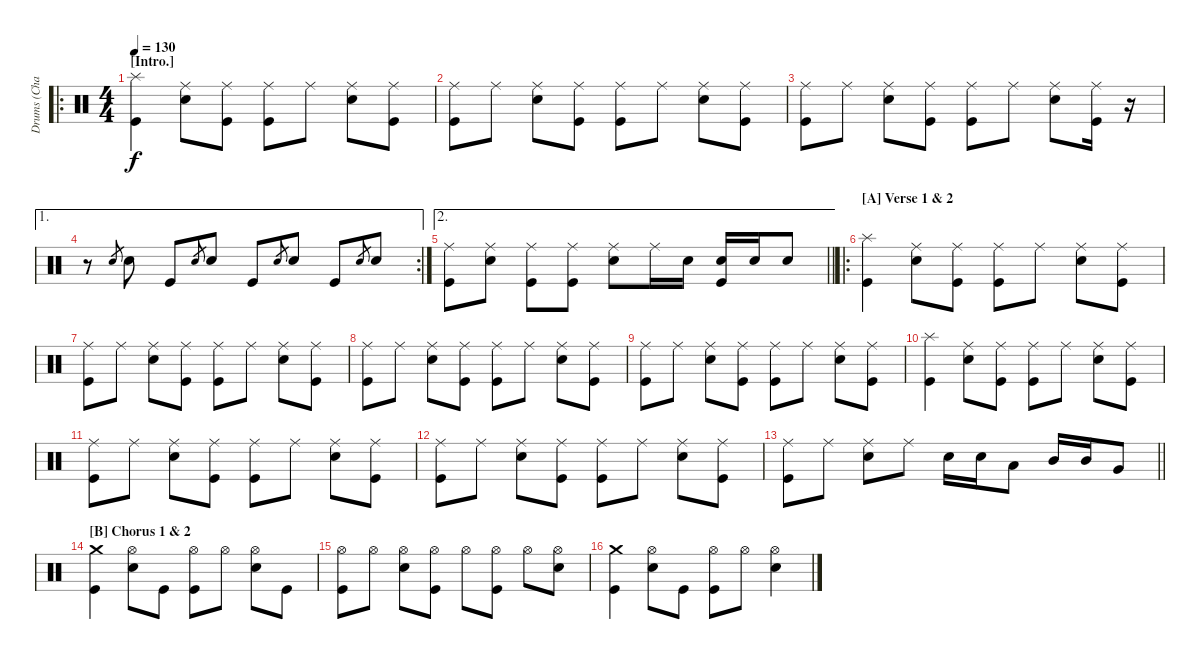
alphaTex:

\track ("Drums (Chad Channing)" "Drums (Cha") {instrument percussion}
\staff {score}
\articulation defaults
\ro
\ts (4 4)
\section ("" "[Intro.]")
\tempo 130
\clef neutral
\ks c
("Splash (hit)" "Kick (hit)").4{dy f} ("Ride (middle)" "Snare (hit) 2").8 ("Ride (middle)" "Kick (hit)").8 ("Ride (middle)" "Kick (hit)").8 "Ride (middle)".8 ("Ride (middle)" "Snare (hit) 2").8 ("Ride (middle)" "Kick (hit)").8 |
("Ride (middle)" "Kick (hit)").8 "Ride (middle)".8 ("Ride (middle)" "Snare (hit) 2").8 ("Ride (middle)" "Kick (hit)").8 ("Ride (middle)" "Kick (hit)").8 "Ride (middle)".8 ("Ride (middle)" "Snare (hit) 2").8 ("Ride (middle)" "Kick (hit)").8 |
("Ride (middle)" "Kick (hit)").8 "Ride (middle)".8 ("Ride (middle)" "Snare (hit) 2").8 ("Ride (middle)" "Kick (hit)").8 ("Ride (middle)" "Kick (hit)").8 "Ride (middle)".8 ("Ride (middle)" "Snare (hit) 2").8 ("Ride (middle)" "Kick (hit)").16 r.16{volume 14} |
\ae 1
\rc 2
r.8 "Snare (hit) 2".8{gr} "Snare (hit) 2".8 "Kick (hit)".8 "Snare (hit) 2".8{gr} "Snare (hit) 2".8 "Kick (hit)".8 "Snare (hit) 2".8{gr} "Snare (hit) 2".8 "Kick (hit)".8 "Snare (hit) 2".8{gr} "Snare (hit) 2".8 |
\ae 2
\barLineRight lightlight
("Ride (middle)" "Kick (hit)").8 ("Ride (middle)" "Snare (hit) 2").8 ("Ride (middle)" "Kick (hit)").8 ("Ride (middle)" "Kick (hit)").8 ("Ride (middle)" "Snare (hit) 2").8 "Ride (middle)".16 "Snare (hit) 2".16 ("Snare (hit) 2" "Kick (hit)").16 "Snare (hit) 2".16 "Snare (hit) 2".8 |
\ro
\section ("" "[A] Verse 1 & 2")
("Splash (hit)" "Kick (hit)").4 ("Ride (middle)" "Snare (hit) 2").8 ("Ride (middle)" "Kick (hit)").8 ("Ride (middle)" "Kick (hit)").8 "Ride (middle)".8 ("Ride (middle)" "Snare (hit) 2").8 ("Ride (middle)" "Kick (hit)").8 |
("Ride (middle)" "Kick (hit)").8 "Ride (middle)".8 ("Ride (middle)" "Snare (hit) 2").8 ("Ride (middle)" "Kick (hit)").8 ("Ride (middle)" "Kick (hit)").8 "Ride (middle)".8 ("Ride (middle)" "Snare (hit) 2").8 ("Ride (middle)" "Kick (hit)").8 |
("Ride (middle)" "Kick (hit)").8 "Ride (middle)".8 ("Ride (middle)" "Snare (hit) 2").8 ("Ride (middle)" "Kick (hit)").8 ("Ride (middle)" "Kick (hit)").8 "Ride (middle)".8 ("Ride (middle)" "Snare (hit) 2").8 ("Ride (middle)" "Kick (hit)").8 |
("Ride (middle)" "Kick (hit)").8 "Ride (middle)".8 ("Ride (middle)" "Snare (hit) 2").8 ("Ride (middle)" "Kick (hit)").8 ("Ride (middle)" "Kick (hit)").8 "Ride (middle)".8 ("Ride (middle)" "Snare (hit) 2").8 ("Ride (middle)" "Kick (hit)").8 |
("Splash (hit)" "Kick (hit)").4 ("Ride (middle)" "Snare (hit) 2").8 ("Ride (middle)" "Kick (hit)").8 ("Ride (middle)" "Kick (hit)").8 "Ride (middle)".8 ("Ride (middle)" "Snare (hit) 2").8 ("Ride (middle)" "Kick (hit)").8 |
("Ride (middle)" "Kick (hit)").8 "Ride (middle)".8 ("Ride (middle)" "Snare (hit) 2").8 ("Ride (middle)" "Kick (hit)").8 ("Ride (middle)" "Kick (hit)").8 "Ride (middle)".8 ("Ride (middle)" "Snare (hit) 2").8 ("Ride (middle)" "Kick (hit)").8 |
("Ride (middle)" "Kick (hit)").8 "Ride (middle)".8 ("Ride (middle)" "Snare (hit) 2").8 ("Ride (middle)" "Kick (hit)").8 ("Ride (middle)" "Kick (hit)").8 "Ride (middle)".8 ("Ride (middle)" "Snare (hit) 2").8 ("Ride (middle)" "Kick (hit)").8 |
\barLineRight lightlight
("Ride (middle)" "Kick (hit)").8 "Ride (middle)".8 ("Ride (middle)" "Snare (hit) 2").8 "Ride (middle)".8 "Snare (hit) 2".16 "Snare (hit) 2".16 "Low Tom (hit)".8 "Mid Tom (hit)".16 "Mid Tom (hit)".16 "Very Low Tom (hit)".8 |
\section ("" "[B] Chorus 1 & 2")
("Crash medium (hit)" "Kick (hit)").4 ("Hi-Hat (open)" "Snare (hit) 2").8 "Kick (hit)".8 ("Hi-Hat (open)" "Kick (hit)").8 "Hi-Hat (open)".8 ("Hi-Hat (open)" "Snare (hit) 2").8 "Kick (hit)".8 |
("Hi-Hat (open)" "Kick (hit)").8 "Hi-Hat (open)".8 ("Hi-Hat (open)" "Snare (hit) 2").8 ("Hi-Hat (open)" "Kick (hit)").8 "Hi-Hat (open)".8 ("Hi-Hat (open)" "Kick (hit)").8 "Hi-Hat (open)".8 ("Hi-Hat (open)" "Snare (hit) 2").8 |
("Crash medium (hit)" "Kick (hit)").4 ("Hi-Hat (open)" "Snare (hit) 2").8 "Kick (hit)".8 ("Hi-Hat (open)" "Kick (hit)").8 "Hi-Hat (open)".8 ("Hi-Hat (open)" "Snare (hit) 2").4
